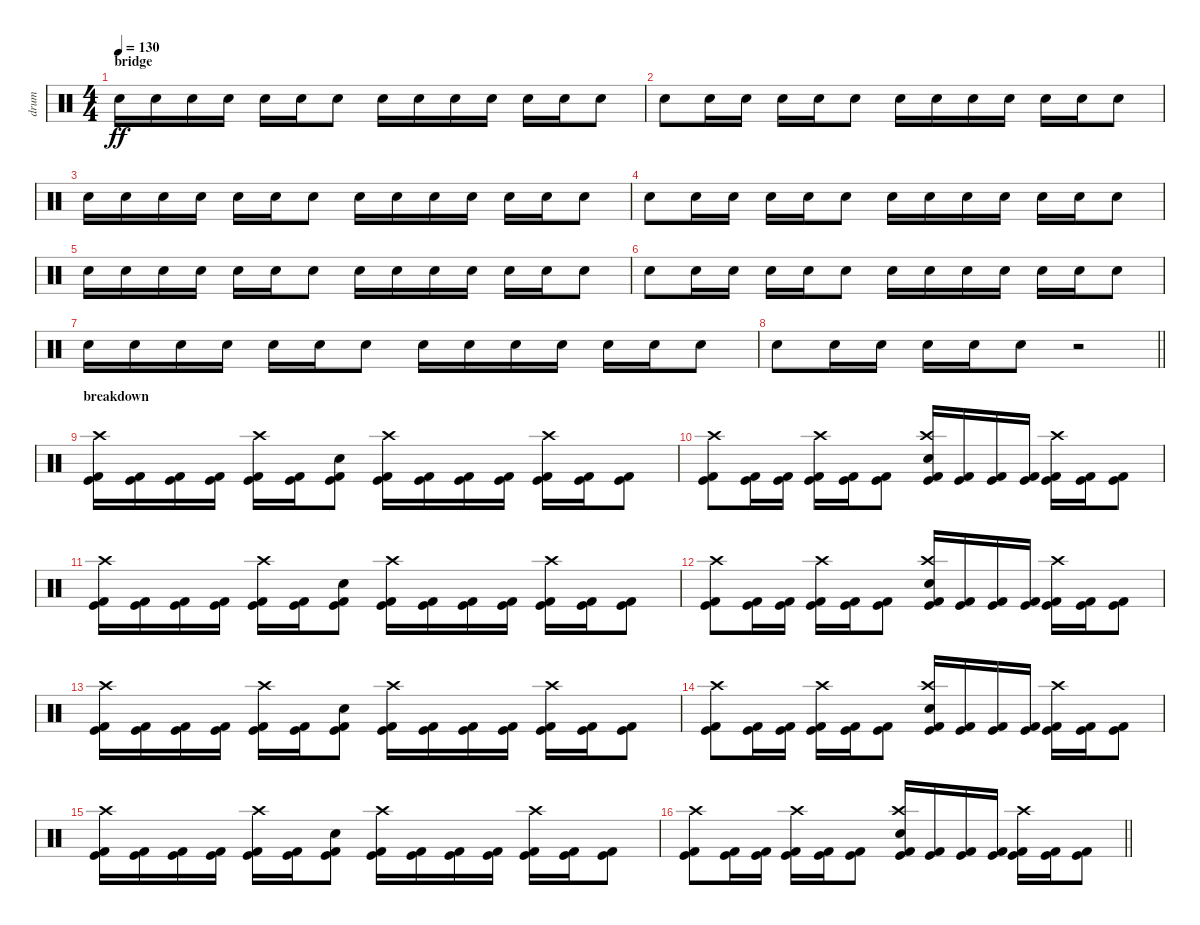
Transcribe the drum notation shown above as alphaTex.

\track ("drum" "drum") {instrument percussion}
\staff {score}
\articulation defaults
\ts (4 4)
\section ("" "bridge")
\tempo 130
\clef neutral
\ks c "Snare (hit) 2".16{dy ff} "Snare (hit) 2".16 "Snare (hit) 2".16 "Snare (hit) 2".16 "Snare (hit) 2".16 "Snare (hit) 2".16 "Snare (hit) 2".8 "Snare (hit) 2".16 "Snare (hit) 2".16 "Snare (hit) 2".16 "Snare (hit) 2".16 "Snare (hit) 2".16 "Snare (hit) 2".16 "Snare (hit) 2".8
|
"Snare (hit) 2".8 "Snare (hit) 2".16 "Snare (hit) 2".16 "Snare (hit) 2".16 "Snare (hit) 2".16 "Snare (hit) 2".8 "Snare (hit) 2".16 "Snare (hit) 2".16 "Snare (hit) 2".16 "Snare (hit) 2".16 "Snare (hit) 2".16 "Snare (hit) 2".16 "Snare (hit) 2".8 |
"Snare (hit) 2".16 "Snare (hit) 2".16 "Snare (hit) 2".16 "Snare (hit) 2".16 "Snare (hit) 2".16 "Snare (hit) 2".16 "Snare (hit) 2".8 "Snare (hit) 2".16 "Snare (hit) 2".16 "Snare (hit) 2".16 "Snare (hit) 2".16 "Snare (hit) 2".16 "Snare (hit) 2".16 "Snare (hit) 2".8 |
"Snare (hit) 2".8 "Snare (hit) 2".16 "Snare (hit) 2".16 "Snare (hit) 2".16 "Snare (hit) 2".16 "Snare (hit) 2".8 "Snare (hit) 2".16 "Snare (hit) 2".16 "Snare (hit) 2".16 "Snare (hit) 2".16 "Snare (hit) 2".16 "Snare (hit) 2".16 "Snare (hit) 2".8 |
"Snare (hit) 2".16 "Snare (hit) 2".16 "Snare (hit) 2".16 "Snare (hit) 2".16 "Snare (hit) 2".16 "Snare (hit) 2".16 "Snare (hit) 2".8 "Snare (hit) 2".16 "Snare (hit) 2".16 "Snare (hit) 2".16 "Snare (hit) 2".16 "Snare (hit) 2".16 "Snare (hit) 2".16 "Snare (hit) 2".8 |
"Snare (hit) 2".8 "Snare (hit) 2".16 "Snare (hit) 2".16 "Snare (hit) 2".16 "Snare (hit) 2".16 "Snare (hit) 2".8 "Snare (hit) 2".16 "Snare (hit) 2".16 "Snare (hit) 2".16 "Snare (hit) 2".16 "Snare (hit) 2".16 "Snare (hit) 2".16 "Snare (hit) 2".8 |
"Snare (hit) 2".16 "Snare (hit) 2".16 "Snare (hit) 2".16 "Snare (hit) 2".16 "Snare (hit) 2".16 "Snare (hit) 2".16 "Snare (hit) 2".8 "Snare (hit) 2".16 "Snare (hit) 2".16 "Snare (hit) 2".16 "Snare (hit) 2".16 "Snare (hit) 2".16 "Snare (hit) 2".16 "Snare (hit) 2".8 |
\barLineRight lightlight "Snare (hit) 2".8 "Snare (hit) 2".16 "Snare (hit) 2".16 "Snare (hit) 2".16 "Snare (hit) 2".16 "Snare (hit) 2".8
r.2 |
\section ("" "breakdown")
("Crash high (hit)" "Kick (hit)" "Kick (hit) 2").16 ("Kick (hit)" "Kick (hit) 2").16 ("Kick (hit)" "Kick (hit) 2").16 ("Kick (hit)" "Kick (hit) 2").16 ("Crash high (hit)" "Kick (hit)" "Kick (hit) 2").16 ("Kick (hit)" "Kick (hit) 2").16 ("Snare (hit) 2" "Kick (hit)" "Kick (hit) 2").8 ("Crash high (hit)" "Kick (hit)" "Kick (hit) 2").16 ("Kick (hit)" "Kick (hit) 2").16 ("Kick (hit)" "Kick (hit) 2").16 ("Kick (hit)" "Kick (hit) 2").16 ("Crash high (hit)" "Kick (hit)" "Kick (hit) 2").16 ("Kick (hit)" "Kick (hit) 2").16 ("Kick (hit)" "Kick (hit) 2").8 |
("Crash high (hit)" "Kick (hit)" "Kick (hit) 2").8 ("Kick (hit)" "Kick (hit) 2").16 ("Kick (hit)" "Kick (hit) 2").16 ("Crash high (hit)" "Kick (hit)" "Kick (hit) 2").16 ("Kick (hit)" "Kick (hit) 2").16 ("Kick (hit)" "Kick (hit) 2").8 ("Crash high (hit)" "Snare (hit) 2" "Kick (hit)" "Kick (hit) 2").16 ("Kick (hit)" "Kick (hit) 2").16 ("Kick (hit)" "Kick (hit) 2").16 ("Kick (hit)" "Kick (hit) 2").16 ("Crash high (hit)" "Kick (hit)" "Kick (hit) 2").16 ("Kick (hit)" "Kick (hit) 2").16 ("Kick (hit)" "Kick (hit) 2").8 |
("Crash high (hit)" "Kick (hit)" "Kick (hit) 2").16 ("Kick (hit)" "Kick (hit) 2").16 ("Kick (hit)" "Kick (hit) 2").16 ("Kick (hit)" "Kick (hit) 2").16 ("Crash high (hit)" "Kick (hit)" "Kick (hit) 2").16 ("Kick (hit)" "Kick (hit) 2").16 ("Snare (hit) 2" "Kick (hit)" "Kick (hit) 2").8 ("Crash high (hit)" "Kick (hit)" "Kick (hit) 2").16 ("Kick (hit)" "Kick (hit) 2").16 ("Kick (hit)" "Kick (hit) 2").16 ("Kick (hit)" "Kick (hit) 2").16 ("Crash high (hit)" "Kick (hit)" "Kick (hit) 2").16 ("Kick (hit)" "Kick (hit) 2").16 ("Kick (hit)" "Kick (hit) 2").8 |
("Crash high (hit)" "Kick (hit)" "Kick (hit) 2").8 ("Kick (hit)" "Kick (hit) 2").16 ("Kick (hit)" "Kick (hit) 2").16 ("Crash high (hit)" "Kick (hit)" "Kick (hit) 2").16 ("Kick (hit)" "Kick (hit) 2").16 ("Kick (hit)" "Kick (hit) 2").8 ("Crash high (hit)" "Snare (hit) 2" "Kick (hit)" "Kick (hit) 2").16 ("Kick (hit)" "Kick (hit) 2").16 ("Kick (hit)" "Kick (hit) 2").16 ("Kick (hit)" "Kick (hit) 2").16 ("Crash high (hit)" "Kick (hit)" "Kick (hit) 2").16 ("Kick (hit)" "Kick (hit) 2").16 ("Kick (hit)" "Kick (hit) 2").8 |
("Crash high (hit)" "Kick (hit)" "Kick (hit) 2").16 ("Kick (hit)" "Kick (hit) 2").16 ("Kick (hit)" "Kick (hit) 2").16 ("Kick (hit)" "Kick (hit) 2").16 ("Crash high (hit)" "Kick (hit)" "Kick (hit) 2").16 ("Kick (hit)" "Kick (hit) 2").16 ("Snare (hit) 2" "Kick (hit)" "Kick (hit) 2").8 ("Crash high (hit)" "Kick (hit)" "Kick (hit) 2").16 ("Kick (hit)" "Kick (hit) 2").16 ("Kick (hit)" "Kick (hit) 2").16 ("Kick (hit)" "Kick (hit) 2").16 ("Crash high (hit)" "Kick (hit)" "Kick (hit) 2").16 ("Kick (hit)" "Kick (hit) 2").16 ("Kick (hit)" "Kick (hit) 2").8 |
("Crash high (hit)" "Kick (hit)" "Kick (hit) 2").8 ("Kick (hit)" "Kick (hit) 2").16 ("Kick (hit)" "Kick (hit) 2").16 ("Crash high (hit)" "Kick (hit)" "Kick (hit) 2").16 ("Kick (hit)" "Kick (hit) 2").16 ("Kick (hit)" "Kick (hit) 2").8 ("Crash high (hit)" "Snare (hit) 2" "Kick (hit)" "Kick (hit) 2").16 ("Kick (hit)" "Kick (hit) 2").16 ("Kick (hit)" "Kick (hit) 2").16 ("Kick (hit)" "Kick (hit) 2").16 ("Crash high (hit)" "Kick (hit)" "Kick (hit) 2").16 ("Kick (hit)" "Kick (hit) 2").16 ("Kick (hit)" "Kick (hit) 2").8 |
("Crash high (hit)" "Kick (hit)" "Kick (hit) 2").16 ("Kick (hit)" "Kick (hit) 2").16 ("Kick (hit)" "Kick (hit) 2").16 ("Kick (hit)" "Kick (hit) 2").16 ("Crash high (hit)" "Kick (hit)" "Kick (hit) 2").16 ("Kick (hit)" "Kick (hit) 2").16 ("Snare (hit) 2" "Kick (hit)" "Kick (hit) 2").8 ("Crash high (hit)" "Kick (hit)" "Kick (hit) 2").16 ("Kick (hit)" "Kick (hit) 2").16 ("Kick (hit)" "Kick (hit) 2").16 ("Kick (hit)" "Kick (hit) 2").16 ("Crash high (hit)" "Kick (hit)" "Kick (hit) 2").16 ("Kick (hit)" "Kick (hit) 2").16 ("Kick (hit)" "Kick (hit) 2").8 |
\barLineRight lightlight
("Crash high (hit)" "Kick (hit)" "Kick (hit) 2").8 ("Kick (hit)" "Kick (hit) 2").16 ("Kick (hit)" "Kick (hit) 2").16 ("Crash high (hit)" "Kick (hit)" "Kick (hit) 2").16 ("Kick (hit)" "Kick (hit) 2").16 ("Kick (hit)" "Kick (hit) 2").8 ("Crash high (hit)" "Snare (hit) 2" "Kick (hit)" "Kick (hit) 2").16 ("Kick (hit)" "Kick (hit) 2").16 ("Kick (hit)" "Kick (hit) 2").16 ("Kick (hit)" "Kick (hit) 2").16 ("Crash high (hit)" "Kick (hit)" "Kick (hit) 2").16 ("Kick (hit)" "Kick (hit) 2").16 ("Kick (hit)" "Kick (hit) 2").8
